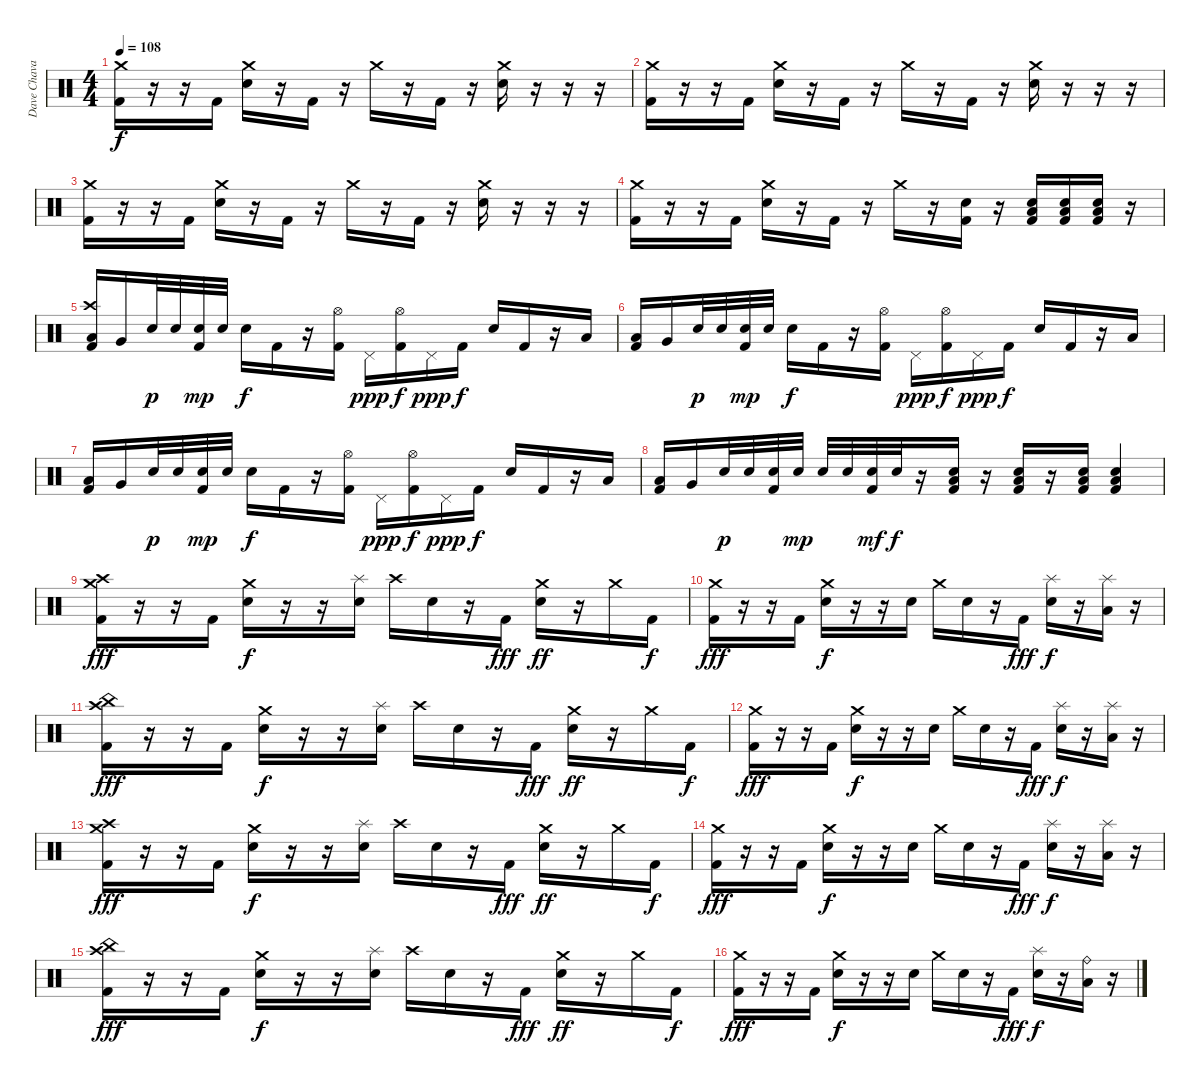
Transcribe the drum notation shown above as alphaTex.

\track ("Dave Chavarri [Drums]" "Dave Chava") {instrument percussion}
\staff {score}
\articulation defaults
\ts (4 4)
\tempo 108
\clef neutral
\ks c
("Crash medium (hit)" "Kick (hit) 2").16{dy f} r.16 r.16 "Kick (hit) 2".16 ("Crash medium (hit)" "Electric Snare (hit)").16 r.16 "Kick (hit) 2".16 r.16 "Crash medium (hit)".16 r.16 "Kick (hit) 2".16 r.16 ("Crash medium (hit)" "Electric Snare (hit)").16 r.16 r.16 r.16 |
("Crash medium (hit)" "Kick (hit) 2").16 r.16 r.16 "Kick (hit) 2".16 ("Crash medium (hit)" "Electric Snare (hit)").16 r.16 "Kick (hit) 2".16 r.16 "Crash medium (hit)".16 r.16 "Kick (hit) 2".16 r.16 ("Crash medium (hit)" "Electric Snare (hit)").16 r.16 r.16 r.16 |
("Crash medium (hit)" "Kick (hit) 2").16 r.16 r.16 "Kick (hit) 2".16 ("Crash medium (hit)" "Electric Snare (hit)").16 r.16 "Kick (hit) 2".16 r.16 "Crash medium (hit)".16 r.16 "Kick (hit) 2".16 r.16 ("Crash medium (hit)" "Electric Snare (hit)").16 r.16 r.16 r.16 |
("Crash medium (hit)" "Kick (hit) 2").16 r.16 r.16 "Kick (hit) 2".16 ("Crash medium (hit)" "Electric Snare (hit)").16 r.16 "Kick (hit) 2".16 r.16 "Crash medium (hit)".16 r.16 ("Electric Snare (hit)" "Kick (hit) 2").16 r.16 ("Low Floor Tom (hit)" "Electric Snare (hit)" "Kick (hit) 2").16 ("Low Floor Tom (hit)" "Electric Snare (hit)" "Kick (hit) 2").16 ("Low Floor Tom (hit)" "Electric Snare (hit)" "Kick (hit) 2").16 r.16 |
("Crash high (hit)" "Low Tom (hit)" "Kick (hit) 2").16 "Very Low Tom (hit)".16 "Electric Snare (hit)".32{dy p} "Electric Snare (hit)".32 ("Electric Snare (hit)" "Kick (hit) 2").32{dy mp} "Electric Snare (hit)".32 "Electric Snare (hit)".16{dy f} "Kick (hit) 2".16 r.16 ("Hi-Hat (open)" "Kick (hit) 2").16 "Pedal Hi-Hat (hit)".16{dy ppp} ("Hi-Hat (open)" "Kick (hit) 2").16{dy f} "Pedal Hi-Hat (hit)".16{dy ppp} "Kick (hit) 2".16{dy f} "Electric Snare (hit)".16 "Kick (hit) 2".16 r.16 "Low Floor Tom (hit)".16 |
("Low Tom (hit)" "Kick (hit) 2").16 "Very Low Tom (hit)".16 "Electric Snare (hit)".32{dy p} "Electric Snare (hit)".32 ("Electric Snare (hit)" "Kick (hit) 2").32{dy mp} "Electric Snare (hit)".32 "Electric Snare (hit)".16{dy f} "Kick (hit) 2".16 r.16 ("Hi-Hat (open)" "Kick (hit) 2").16 "Pedal Hi-Hat (hit)".16{dy ppp} ("Hi-Hat (open)" "Kick (hit) 2").16{dy f} "Pedal Hi-Hat (hit)".16{dy ppp} "Kick (hit) 2".16{dy f} "Electric Snare (hit)".16 "Kick (hit) 2".16 r.16 "Low Floor Tom (hit)".16 |
("Low Tom (hit)" "Kick (hit) 2").16 "Very Low Tom (hit)".16 "Electric Snare (hit)".32{dy p} "Electric Snare (hit)".32 ("Electric Snare (hit)" "Kick (hit) 2").32{dy mp} "Electric Snare (hit)".32 "Electric Snare (hit)".16{dy f} "Kick (hit) 2".16 r.16 ("Hi-Hat (open)" "Kick (hit) 2").16 "Pedal Hi-Hat (hit)".16{dy ppp} ("Hi-Hat (open)" "Kick (hit) 2").16{dy f} "Pedal Hi-Hat (hit)".16{dy ppp} "Kick (hit) 2".16{dy f} "Electric Snare (hit)".16 "Kick (hit) 2".16 r.16 "Low Floor Tom (hit)".16 |
("Low Tom (hit)" "Kick (hit) 2").16 "Very Low Tom (hit)".16 "Electric Snare (hit)".32{dy p} "Electric Snare (hit)".32 ("Electric Snare (hit)" "Kick (hit) 2").32 "Electric Snare (hit)".32{dy mp} "Electric Snare (hit)".32 "Electric Snare (hit)".32 ("Electric Snare (hit)" "Kick (hit) 2").32{dy mf} "Electric Snare (hit)".32{dy f} r.16 ("Low Floor Tom (hit)" "Electric Snare (hit)" "Kick (hit) 2").16 r.16 ("Low Floor Tom (hit)" "Electric Snare (hit)" "Kick (hit) 2").16 r.16 ("Low Floor Tom (hit)" "Electric Snare (hit)" "Kick (hit) 2").16 ("Low Floor Tom (hit)" "Electric Snare (hit)" "Kick (hit) 2").4 |
("Crash medium (hit)" "Crash high (hit)" "Kick (hit) 2").16{dy fff} r.16 r.16 "Kick (hit) 2".16 ("Crash medium (hit)" "Electric Snare (hit)").16{dy f} r.16 r.16 ("Splash (hit)" "Electric Snare (hit)").16 "Crash high (hit)".16 "Electric Snare (hit)".16 r.16 "Kick (hit) 2".16{dy fff} ("Crash medium (hit)" "Electric Snare (hit)").16{dy ff} r.16 "Crash medium (hit)".16 "Kick (hit) 2".16{dy f} |
("Crash medium (hit)" "Kick (hit) 2").16{dy fff} r.16 r.16 "Kick (hit) 2".16 ("Crash medium (hit)" "Electric Snare (hit)").16{dy f} r.16 r.16 "Electric Snare (hit)".16 "Crash medium (hit)".16 "Electric Snare (hit)".16 r.16 "Kick (hit) 2".16{dy fff} ("Splash (hit)" "Electric Snare (hit)").16{dy f} r.16 ("Splash (hit)" "Low Tom (hit)").16 r.16 |
("Crash high (hit)" "China (hit)" "Kick (hit) 2").16{dy fff} r.16 r.16 "Kick (hit) 2".16 ("Crash medium (hit)" "Electric Snare (hit)").16{dy f} r.16 r.16 ("Splash (hit)" "Electric Snare (hit)").16 "Crash high (hit)".16 "Electric Snare (hit)".16 r.16 "Kick (hit) 2".16{dy fff} ("Crash medium (hit)" "Electric Snare (hit)").16{dy ff} r.16 "Crash medium (hit)".16 "Kick (hit) 2".16{dy f} |
("Crash medium (hit)" "Kick (hit) 2").16{dy fff} r.16 r.16 "Kick (hit) 2".16 ("Crash medium (hit)" "Electric Snare (hit)").16{dy f} r.16 r.16 "Electric Snare (hit)".16 "Crash medium (hit)".16 "Electric Snare (hit)".16 r.16 "Kick (hit) 2".16{dy fff} ("Splash (hit)" "Electric Snare (hit)").16{dy f} r.16 ("Splash (hit)" "Low Tom (hit)").16 r.16 |
("Crash medium (hit)" "Crash high (hit)" "Kick (hit) 2").16{dy fff} r.16 r.16 "Kick (hit) 2".16 ("Crash medium (hit)" "Electric Snare (hit)").16{dy f} r.16 r.16 ("Splash (hit)" "Electric Snare (hit)").16 "Crash high (hit)".16 "Electric Snare (hit)".16 r.16 "Kick (hit) 2".16{dy fff} ("Crash medium (hit)" "Electric Snare (hit)").16{dy ff} r.16 "Crash medium (hit)".16 "Kick (hit) 2".16{dy f} |
("Crash medium (hit)" "Kick (hit) 2").16{dy fff} r.16 r.16 "Kick (hit) 2".16 ("Crash medium (hit)" "Electric Snare (hit)").16{dy f} r.16 r.16 "Electric Snare (hit)".16 "Crash medium (hit)".16 "Electric Snare (hit)".16 r.16 "Kick (hit) 2".16{dy fff} ("Splash (hit)" "Electric Snare (hit)").16{dy f} r.16 ("Splash (hit)" "Low Tom (hit)").16 r.16 |
("China (hit)" "Crash high (hit)" "Kick (hit) 2").16{dy fff} r.16 r.16 "Kick (hit) 2".16 ("Crash medium (hit)" "Electric Snare (hit)").16{dy f} r.16 r.16 ("Splash (hit)" "Electric Snare (hit)").16 "Crash high (hit)".16 "Electric Snare (hit)".16 r.16 "Kick (hit) 2".16{dy fff} ("Crash medium (hit)" "Electric Snare (hit)").16{dy ff} r.16 "Crash medium (hit)".16 "Kick (hit) 2".16{dy f} |
("Crash medium (hit)" "Kick (hit) 2").16{dy fff} r.16 r.16 "Kick (hit) 2".16 ("Crash medium (hit)" "Electric Snare (hit)").16{dy f} r.16 r.16 "Electric Snare (hit)".16 "Crash medium (hit)".16 "Electric Snare (hit)".16 r.16 "Kick (hit) 2".16{dy fff} ("Splash (hit)" "Electric Snare (hit)").16{dy f} r.16 ("Low Tom (hit)" "Ride (bell)").16 r.16
